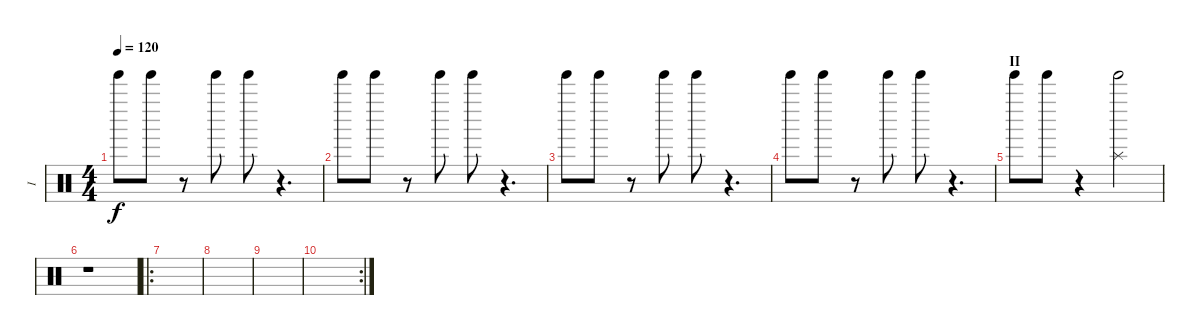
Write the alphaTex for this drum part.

\track ("I" "I") {instrument percussion}
\staff {score}
\articulation defaults
\ts (4 4)
\tempo 120
\clef neutral
\ks c "Tinkle Bell (hit)".8{dy f volume 7} "Tinkle Bell (hit)".8
r.8 "Tinkle Bell (hit)".8 "Tinkle Bell (hit)".8 r.4{d} |
"Tinkle Bell (hit)".8 "Tinkle Bell (hit)".8 r.8 "Tinkle Bell (hit)".8 "Tinkle Bell (hit)".8 r.4{d} |
"Tinkle Bell (hit)".8 "Tinkle Bell (hit)".8 r.8 "Tinkle Bell (hit)".8 "Tinkle Bell (hit)".8 r.4{d} |
"Tinkle Bell (hit)".8 "Tinkle Bell (hit)".8 r.8 "Tinkle Bell (hit)".8 "Tinkle Bell (hit)".8 r.4{d} |
\section ("" "II")
"Tinkle Bell (hit)".8 "Tinkle Bell (hit)".8 r.4 ("Splash (hit)" "Tinkle Bell (hit)").2 |
r.1 |
\ro
|
|
|
\rc 2
